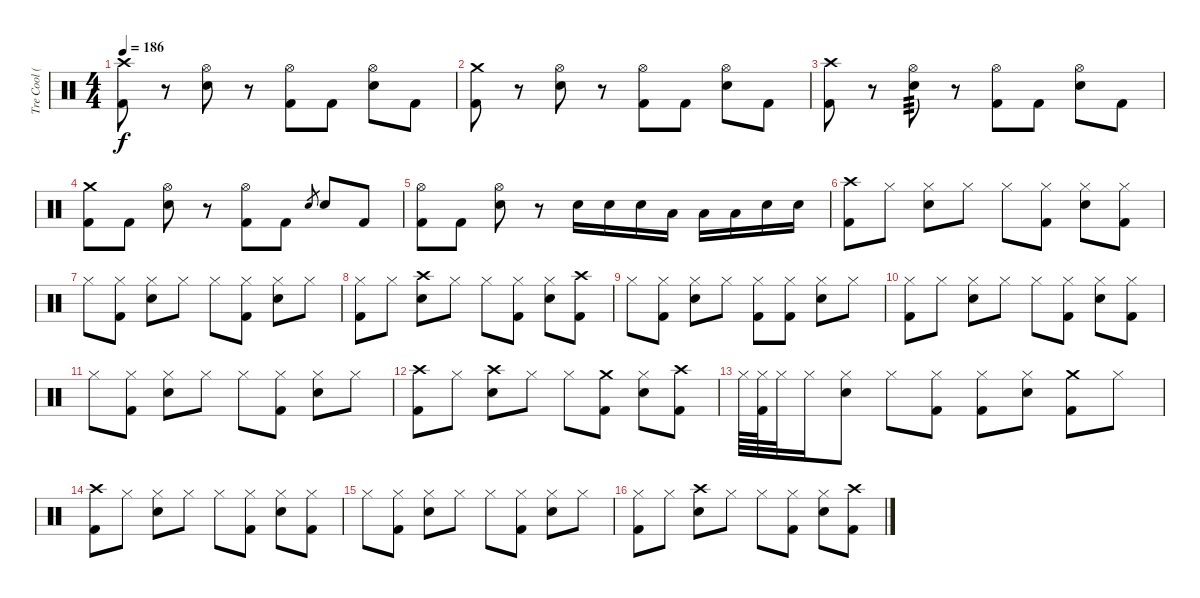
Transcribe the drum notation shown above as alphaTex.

\track ("Tre Cool (Drums)" "Tre Cool (") {instrument percussion}
\staff {score}
\articulation defaults
\ts (4 4)
\tempo 186
\clef neutral
\ks c
("Crash high (hit)" "Kick (hit) 2").8{dy f} r.8 ("Hi-Hat (open)" "Snare (hit) 2").8 r.8 ("Hi-Hat (open)" "Kick (hit) 2").8 "Kick (hit) 2".8 ("Hi-Hat (open)" "Snare (hit) 2").8 "Kick (hit) 2".8 |
("Kick (hit) 2" "Crash medium (hit)").8 r.8 ("Snare (hit) 2" "Hi-Hat (open)").8 r.8 ("Kick (hit) 2" "Hi-Hat (open)").8 "Kick (hit) 2".8 ("Snare (hit) 2" "Hi-Hat (open)").8 "Kick (hit) 2".8 |
("Kick (hit) 2" "Crash high (hit)").8 r.8 ("Snare (hit) 2" "Hi-Hat (open)").8{tp 3} r.8 ("Kick (hit) 2" "Hi-Hat (open)").8 "Kick (hit) 2".8 ("Snare (hit) 2" "Hi-Hat (open)").8 "Kick (hit) 2".8 |
("Crash medium (hit)" "Kick (hit) 2").8 "Kick (hit) 2".8 ("Hi-Hat (open)" "Snare (hit) 2").8 r.8 ("Hi-Hat (open)" "Kick (hit) 2").8 "Kick (hit) 2".8 "Snare (hit) 2".8{gr} "Snare (hit) 2".8 "Kick (hit) 2".8 |
("Hi-Hat (open)" "Kick (hit) 2").8 "Kick (hit) 2".8 ("Hi-Hat (open)" "Snare (hit) 2").8 r.8 "Snare (hit) 2".16 "Snare (hit) 2".16 "Snare (hit) 2".16 "Low Tom (hit)".16 "Low Tom (hit)".16 "Low Tom (hit)".16 "Snare (hit) 2".16 "Snare (hit) 2".16 |
("Crash high (hit)" "Kick (hit) 2").8 "Hi-Hat (closed)".8 ("Hi-Hat (closed)" "Snare (hit) 2").8 "Hi-Hat (closed)".8 "Hi-Hat (closed)".8 ("Kick (hit) 2" "Hi-Hat (closed)").8 ("Hi-Hat (closed)" "Snare (hit) 2").8 ("Kick (hit) 2" "Hi-Hat (closed)").8 |
"Hi-Hat (closed)".8 ("Kick (hit) 2" "Hi-Hat (closed)").8 ("Hi-Hat (closed)" "Snare (hit) 2").8 "Hi-Hat (closed)".8 "Hi-Hat (closed)".8 ("Kick (hit) 2" "Hi-Hat (closed)").8 ("Hi-Hat (closed)" "Snare (hit) 2").8 "Hi-Hat (closed)".8 |
("Hi-Hat (closed)" "Kick (hit) 2").8 "Hi-Hat (closed)".8 ("Crash high (hit)" "Snare (hit) 2").8 "Hi-Hat (closed)".8 "Hi-Hat (closed)".8 ("Kick (hit) 2" "Hi-Hat (closed)").8 ("Snare (hit) 2" "Hi-Hat (closed)").8 ("Crash high (hit)" "Kick (hit) 2").8 |
"Hi-Hat (closed)".8 ("Kick (hit) 2" "Hi-Hat (closed)").8 ("Hi-Hat (closed)" "Snare (hit) 2").8 "Hi-Hat (closed)".8 ("Hi-Hat (closed)" "Kick (hit) 2").8 ("Kick (hit) 2" "Hi-Hat (closed)").8 ("Snare (hit) 2" "Hi-Hat (closed)").8 "Hi-Hat (closed)".8 |
("Kick (hit) 2" "Hi-Hat (closed)").8 "Hi-Hat (closed)".8 ("Snare (hit) 2" "Hi-Hat (closed)").8 "Hi-Hat (closed)".8 "Hi-Hat (closed)".8 ("Kick (hit) 2" "Hi-Hat (closed)").8 ("Snare (hit) 2" "Hi-Hat (closed)").8 ("Kick (hit) 2" "Hi-Hat (closed)").8 |
"Hi-Hat (closed)".8 ("Kick (hit) 2" "Hi-Hat (closed)").8 ("Snare (hit) 2" "Hi-Hat (closed)").8 "Hi-Hat (closed)".8 "Hi-Hat (closed)".8 ("Kick (hit) 2" "Hi-Hat (closed)").8 ("Snare (hit) 2" "Hi-Hat (closed)").8 "Hi-Hat (closed)".8 |
("Crash high (hit)" "Kick (hit) 2").8 "Hi-Hat (closed)".8 ("Crash high (hit)" "Snare (hit) 2").8 "Hi-Hat (closed)".8 "Hi-Hat (closed)".8 ("Crash medium (hit)" "Kick (hit) 2").8 ("Snare (hit) 2" "Hi-Hat (closed)").8 ("Crash high (hit)" "Kick (hit) 2").8 |
"Hi-Hat (closed)".64 ("Hi-Hat (closed)" "Kick (hit) 2").64 "Hi-Hat (closed)".32 "Hi-Hat (closed)".16 ("Hi-Hat (closed)" "Snare (hit) 2").8 "Hi-Hat (closed)".8 ("Hi-Hat (closed)" "Kick (hit) 2").8 ("Kick (hit) 2" "Hi-Hat (closed)").8 ("Snare (hit) 2" "Hi-Hat (closed)").8 ("Kick (hit) 2" "Crash medium (hit)").8 "Hi-Hat (closed)".8 |
("Kick (hit) 2" "Crash high (hit)").8 "Hi-Hat (closed)".8 ("Snare (hit) 2" "Hi-Hat (closed)").8 "Hi-Hat (closed)".8 "Hi-Hat (closed)".8 ("Kick (hit) 2" "Hi-Hat (closed)").8 ("Snare (hit) 2" "Hi-Hat (closed)").8 ("Kick (hit) 2" "Hi-Hat (closed)").8 |
"Hi-Hat (closed)".8 ("Kick (hit) 2" "Hi-Hat (closed)").8 ("Snare (hit) 2" "Hi-Hat (closed)").8 "Hi-Hat (closed)".8 "Hi-Hat (closed)".8 ("Kick (hit) 2" "Hi-Hat (closed)").8 ("Snare (hit) 2" "Hi-Hat (closed)").8 "Hi-Hat (closed)".8 |
("Kick (hit) 2" "Hi-Hat (closed)").8 "Hi-Hat (closed)".8 ("Crash high (hit)" "Snare (hit) 2").8 "Hi-Hat (closed)".8 "Hi-Hat (closed)".8 ("Kick (hit) 2" "Hi-Hat (closed)").8 ("Snare (hit) 2" "Hi-Hat (closed)").8 ("Crash high (hit)" "Kick (hit) 2").8
